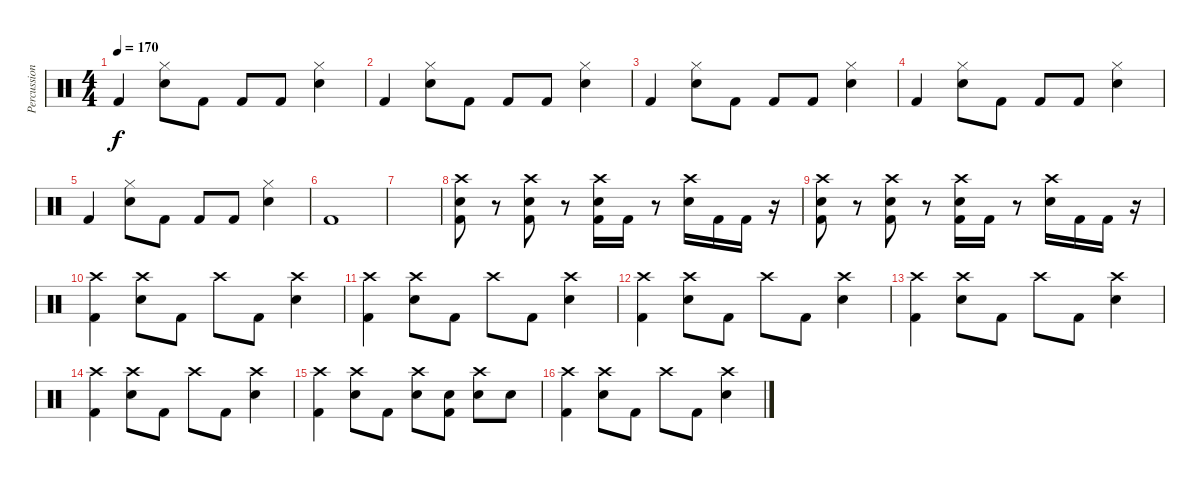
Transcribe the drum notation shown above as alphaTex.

\track ("Percussion" "Percussion") {instrument percussion}
\staff {score}
\articulation defaults
\ts (4 4)
\tempo 170
\clef neutral
\ks c "Kick (hit) 2".4{dy f}
("Hi-Hat (closed)" "Snare (hit) 2").8 "Kick (hit) 2".8 "Kick (hit) 2".8 "Kick (hit) 2".8 ("Hi-Hat (closed)" "Snare (hit) 2").4 |
"Kick (hit) 2".4 ("Hi-Hat (closed)" "Snare (hit) 2").8 "Kick (hit) 2".8 "Kick (hit) 2".8 "Kick (hit) 2".8 ("Hi-Hat (closed)" "Snare (hit) 2").4 |
"Kick (hit) 2".4 ("Hi-Hat (closed)" "Snare (hit) 2").8 "Kick (hit) 2".8 "Kick (hit) 2".8 "Kick (hit) 2".8 ("Hi-Hat (closed)" "Snare (hit) 2").4 |
"Kick (hit) 2".4 ("Hi-Hat (closed)" "Snare (hit) 2").8 "Kick (hit) 2".8 "Kick (hit) 2".8 "Kick (hit) 2".8 ("Hi-Hat (closed)" "Snare (hit) 2").4 |
"Kick (hit) 2".4 ("Hi-Hat (closed)" "Snare (hit) 2").8 "Kick (hit) 2".8 "Kick (hit) 2".8 "Kick (hit) 2".8 ("Hi-Hat (closed)" "Snare (hit) 2").4 |
"Kick (hit) 2".1 |
|
("Crash high (hit)" "Snare (hit) 2" "Kick (hit) 2").8 r.8 ("Crash high (hit)" "Snare (hit) 2" "Kick (hit) 2").8 r.8 ("Crash high (hit)" "Snare (hit) 2" "Kick (hit) 2").16 "Kick (hit) 2".16 r.8 ("Crash high (hit)" "Snare (hit) 2").16 "Kick (hit) 2".16 "Kick (hit) 2".16 r.16 |
("Crash high (hit)" "Snare (hit) 2" "Kick (hit) 2").8 r.8 ("Crash high (hit)" "Snare (hit) 2" "Kick (hit) 2").8 r.8 ("Crash high (hit)" "Snare (hit) 2" "Kick (hit) 2").16 "Kick (hit) 2".16 r.8 ("Crash high (hit)" "Snare (hit) 2").16 "Kick (hit) 2".16 "Kick (hit) 2".16 r.16 |
("Crash high (hit)" "Kick (hit) 2").4 ("Crash high (hit)" "Snare (hit) 2").8 "Kick (hit) 2".8 "Crash high (hit)".8 "Kick (hit) 2".8 ("Crash high (hit)" "Snare (hit) 2").4 |
("Crash high (hit)" "Kick (hit) 2").4 ("Crash high (hit)" "Snare (hit) 2").8 "Kick (hit) 2".8 "Crash high (hit)".8 "Kick (hit) 2".8 ("Crash high (hit)" "Snare (hit) 2").4 |
("Crash high (hit)" "Kick (hit) 2").4 ("Crash high (hit)" "Snare (hit) 2").8 "Kick (hit) 2".8 "Crash high (hit)".8 "Kick (hit) 2".8 ("Crash high (hit)" "Snare (hit) 2").4 |
("Crash high (hit)" "Kick (hit) 2").4 ("Crash high (hit)" "Snare (hit) 2").8 "Kick (hit) 2".8 "Crash high (hit)".8 "Kick (hit) 2".8 ("Crash high (hit)" "Snare (hit) 2").4 |
("Crash high (hit)" "Kick (hit) 2").4 ("Crash high (hit)" "Snare (hit) 2").8 "Kick (hit) 2".8 "Crash high (hit)".8 "Kick (hit) 2".8 ("Crash high (hit)" "Snare (hit) 2").4 |
("Crash high (hit)" "Kick (hit) 2").4 ("Crash high (hit)" "Snare (hit) 2").8 "Kick (hit) 2".8 ("Crash high (hit)" "Snare (hit) 2").8 ("Snare (hit) 2" "Kick (hit) 2").8 ("Crash high (hit)" "Snare (hit) 2").8 "Snare (hit) 2".8 |
("Crash high (hit)" "Kick (hit) 2").4 ("Crash high (hit)" "Snare (hit) 2").8 "Kick (hit) 2".8 "Crash high (hit)".8 "Kick (hit) 2".8 ("Crash high (hit)" "Snare (hit) 2").4
